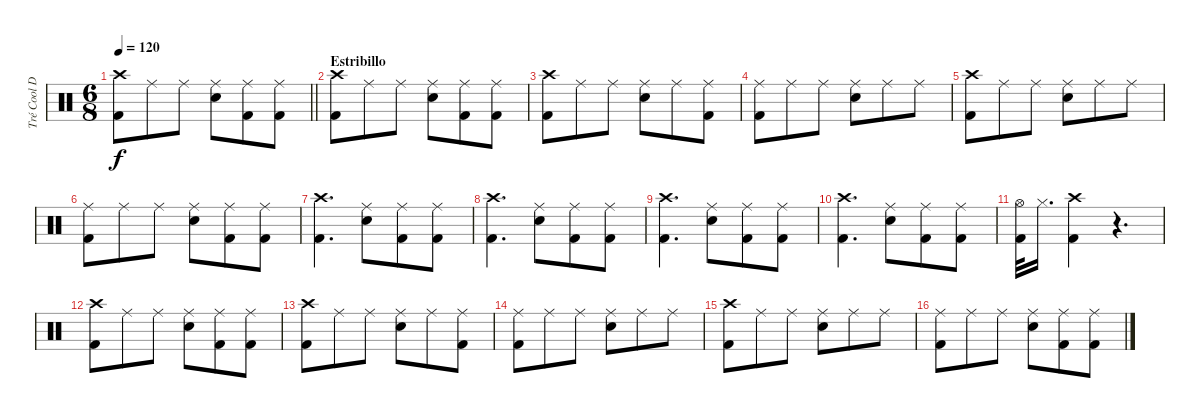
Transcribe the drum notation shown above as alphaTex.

\track ("Tré Cool Drums" "Tré Cool D") {instrument percussion}
\staff {score}
\articulation defaults
\ts (6 8)
\tempo 120
\clef neutral
\barLineRight lightlight
\ks c
("Crash high (hit)" "Kick (hit) 2").8{dy f} "Ride (middle)".8 "Ride (middle)".8 ("Ride (middle)" "Snare (hit) 2").8 ("Ride (middle)" "Kick (hit) 2").8 ("Ride (middle)" "Kick (hit) 2").8 |
\section ("" "Estribillo")
("Crash high (hit)" "Kick (hit) 2").8 "Ride (middle)".8 "Ride (middle)".8 ("Ride (middle)" "Snare (hit) 2").8 ("Ride (middle)" "Kick (hit) 2").8 ("Ride (middle)" "Kick (hit) 2").8 |
("Crash high (hit)" "Kick (hit) 2").8 "Ride (middle)".8 "Ride (middle)".8 ("Ride (middle)" "Snare (hit) 2").8 "Ride (middle)".8 ("Ride (middle)" "Kick (hit) 2").8 |
("Ride (middle)" "Kick (hit) 2").8 "Ride (middle)".8 "Ride (middle)".8 ("Ride (middle)" "Snare (hit) 2").8 "Ride (middle)".8 "Ride (middle)".8 |
("Crash high (hit)" "Kick (hit) 2").8 "Ride (middle)".8 "Ride (middle)".8 ("Ride (middle)" "Snare (hit) 2").8 "Ride (middle)".8 "Ride (middle)".8 |
("Ride (middle)" "Kick (hit) 2").8 "Ride (middle)".8 "Ride (middle)".8 ("Ride (middle)" "Snare (hit) 2").8 ("Ride (middle)" "Kick (hit) 2").8 ("Ride (middle)" "Kick (hit) 2").8 |
("Crash high (hit)" "Kick (hit) 2").4{d} ("Ride (middle)" "Snare (hit) 2").8 ("Ride (middle)" "Kick (hit) 2").8 ("Ride (middle)" "Kick (hit) 2").8 |
("Crash high (hit)" "Kick (hit) 2").4{d} ("Ride (middle)" "Snare (hit) 2").8 ("Ride (middle)" "Kick (hit) 2").8 ("Ride (middle)" "Kick (hit) 2").8 |
("Crash high (hit)" "Kick (hit) 2").4{d} ("Ride (middle)" "Snare (hit) 2").8 ("Ride (middle)" "Kick (hit) 2").8 ("Ride (middle)" "Kick (hit) 2").8 |
("Crash high (hit)" "Kick (hit) 2").4{d} ("Ride (middle)" "Snare (hit) 2").8 ("Ride (middle)" "Kick (hit) 2").8 ("Ride (middle)" "Kick (hit) 2").8 |
("Hi-Hat (open)" "Kick (hit) 2").32 "Hi-Hat (closed)".16{d} ("Crash high (hit)" "Kick (hit) 2").4 r.4{d} |
("Crash high (hit)" "Kick (hit) 2").8 "Ride (middle)".8 "Ride (middle)".8 ("Ride (middle)" "Snare (hit) 2").8 ("Ride (middle)" "Kick (hit) 2").8 ("Ride (middle)" "Kick (hit) 2").8 |
("Crash high (hit)" "Kick (hit) 2").8 "Ride (middle)".8 "Ride (middle)".8 ("Ride (middle)" "Snare (hit) 2").8 "Ride (middle)".8 ("Ride (middle)" "Kick (hit) 2").8 |
("Ride (middle)" "Kick (hit) 2").8 "Ride (middle)".8 "Ride (middle)".8 ("Ride (middle)" "Snare (hit) 2").8 "Ride (middle)".8 "Ride (middle)".8 |
("Crash high (hit)" "Kick (hit) 2").8 "Ride (middle)".8 "Ride (middle)".8 ("Ride (middle)" "Snare (hit) 2").8 "Ride (middle)".8 "Ride (middle)".8 |
("Ride (middle)" "Kick (hit) 2").8 "Ride (middle)".8 "Ride (middle)".8 ("Ride (middle)" "Snare (hit) 2").8 ("Ride (middle)" "Kick (hit) 2").8 ("Ride (middle)" "Kick (hit) 2").8
